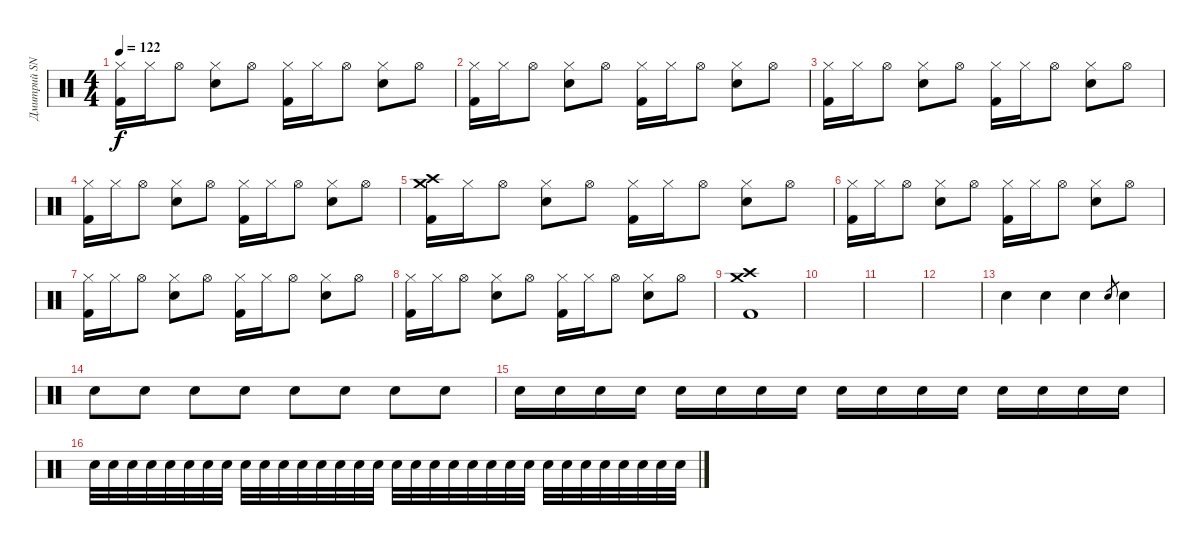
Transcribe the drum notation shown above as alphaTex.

\track ("Дмитрий SNAKE Хакимов" "Дмитрий SN") {instrument percussion}
\staff {score}
\articulation defaults
\ts (4 4)
\tempo 122
\clef neutral
\ks c
("Hi-Hat (closed)" "Kick (hit) 2").16{dy f} "Hi-Hat (closed)".16 "Hi-Hat (open)".8 ("Hi-Hat (closed)" "Snare (hit) 2").8 "Hi-Hat (open)".8 ("Hi-Hat (closed)" "Kick (hit) 2").16 "Hi-Hat (closed)".16 "Hi-Hat (open)".8 ("Hi-Hat (closed)" "Snare (hit) 2").8 "Hi-Hat (open)".8 |
("Hi-Hat (closed)" "Kick (hit) 2").16 "Hi-Hat (closed)".16 "Hi-Hat (open)".8 ("Hi-Hat (closed)" "Snare (hit) 2").8 "Hi-Hat (open)".8 ("Hi-Hat (closed)" "Kick (hit) 2").16 "Hi-Hat (closed)".16 "Hi-Hat (open)".8 ("Hi-Hat (closed)" "Snare (hit) 2").8 "Hi-Hat (open)".8 |
("Hi-Hat (closed)" "Kick (hit) 2").16 "Hi-Hat (closed)".16 "Hi-Hat (open)".8 ("Hi-Hat (closed)" "Snare (hit) 2").8 "Hi-Hat (open)".8 ("Hi-Hat (closed)" "Kick (hit) 2").16 "Hi-Hat (closed)".16 "Hi-Hat (open)".8 ("Hi-Hat (closed)" "Snare (hit) 2").8 "Hi-Hat (open)".8 |
("Hi-Hat (closed)" "Kick (hit) 2").16 "Hi-Hat (closed)".16 "Hi-Hat (open)".8 ("Hi-Hat (closed)" "Snare (hit) 2").8 "Hi-Hat (open)".8 ("Hi-Hat (closed)" "Kick (hit) 2").16 "Hi-Hat (closed)".16 "Hi-Hat (open)".8 ("Hi-Hat (closed)" "Snare (hit) 2").8 "Hi-Hat (open)".8 |
("Crash high (hit)" "Crash medium (hit)" "Kick (hit) 2").16 "Hi-Hat (closed)".16 "Hi-Hat (open)".8 ("Hi-Hat (closed)" "Snare (hit) 2").8 "Hi-Hat (open)".8 ("Hi-Hat (closed)" "Kick (hit) 2").16 "Hi-Hat (closed)".16 "Hi-Hat (open)".8 ("Hi-Hat (closed)" "Snare (hit) 2").8 "Hi-Hat (open)".8 |
("Hi-Hat (closed)" "Kick (hit) 2").16 "Hi-Hat (closed)".16 "Hi-Hat (open)".8 ("Hi-Hat (closed)" "Snare (hit) 2").8 "Hi-Hat (open)".8 ("Hi-Hat (closed)" "Kick (hit) 2").16 "Hi-Hat (closed)".16 "Hi-Hat (open)".8 ("Hi-Hat (closed)" "Snare (hit) 2").8 "Hi-Hat (open)".8 |
("Hi-Hat (closed)" "Kick (hit) 2").16 "Hi-Hat (closed)".16 "Hi-Hat (open)".8 ("Hi-Hat (closed)" "Snare (hit) 2").8 "Hi-Hat (open)".8 ("Hi-Hat (closed)" "Kick (hit) 2").16 "Hi-Hat (closed)".16 "Hi-Hat (open)".8 ("Hi-Hat (closed)" "Snare (hit) 2").8 "Hi-Hat (open)".8 |
("Hi-Hat (closed)" "Kick (hit) 2").16 "Hi-Hat (closed)".16 "Hi-Hat (open)".8 ("Hi-Hat (closed)" "Snare (hit) 2").8 "Hi-Hat (open)".8 ("Hi-Hat (closed)" "Kick (hit) 2").16 "Hi-Hat (closed)".16 "Hi-Hat (open)".8 ("Hi-Hat (closed)" "Snare (hit) 2").8 "Hi-Hat (open)".8 |
("Crash high (hit)" "Crash medium (hit)" "Kick (hit) 2").1 |
|
|
|
"Electric Snare (hit)".4 "Electric Snare (hit)".4 "Electric Snare (hit)".4 "Electric Snare (hit)".8{gr} "Electric Snare (hit)".4 |
"Electric Snare (hit)".8 "Electric Snare (hit)".8 "Electric Snare (hit)".8 "Electric Snare (hit)".8 "Electric Snare (hit)".8 "Electric Snare (hit)".8 "Electric Snare (hit)".8 "Electric Snare (hit)".8 |
"Electric Snare (hit)".16 "Electric Snare (hit)".16 "Electric Snare (hit)".16 "Electric Snare (hit)".16 "Electric Snare (hit)".16 "Electric Snare (hit)".16 "Electric Snare (hit)".16 "Electric Snare (hit)".16 "Electric Snare (hit)".16 "Electric Snare (hit)".16 "Electric Snare (hit)".16 "Electric Snare (hit)".16 "Electric Snare (hit)".16 "Electric Snare (hit)".16 "Electric Snare (hit)".16 "Electric Snare (hit)".16 |
"Electric Snare (hit)".32 "Electric Snare (hit)".32 "Electric Snare (hit)".32 "Electric Snare (hit)".32 "Electric Snare (hit)".32 "Electric Snare (hit)".32 "Electric Snare (hit)".32 "Electric Snare (hit)".32 "Electric Snare (hit)".32 "Electric Snare (hit)".32 "Electric Snare (hit)".32 "Electric Snare (hit)".32 "Electric Snare (hit)".32 "Electric Snare (hit)".32 "Electric Snare (hit)".32 "Electric Snare (hit)".32 "Electric Snare (hit)".32 "Electric Snare (hit)".32 "Electric Snare (hit)".32 "Electric Snare (hit)".32 "Electric Snare (hit)".32 "Electric Snare (hit)".32 "Electric Snare (hit)".32 "Electric Snare (hit)".32 "Electric Snare (hit)".32 "Electric Snare (hit)".32 "Electric Snare (hit)".32 "Electric Snare (hit)".32 "Electric Snare (hit)".32 "Electric Snare (hit)".32 "Electric Snare (hit)".32 "Electric Snare (hit)".32
